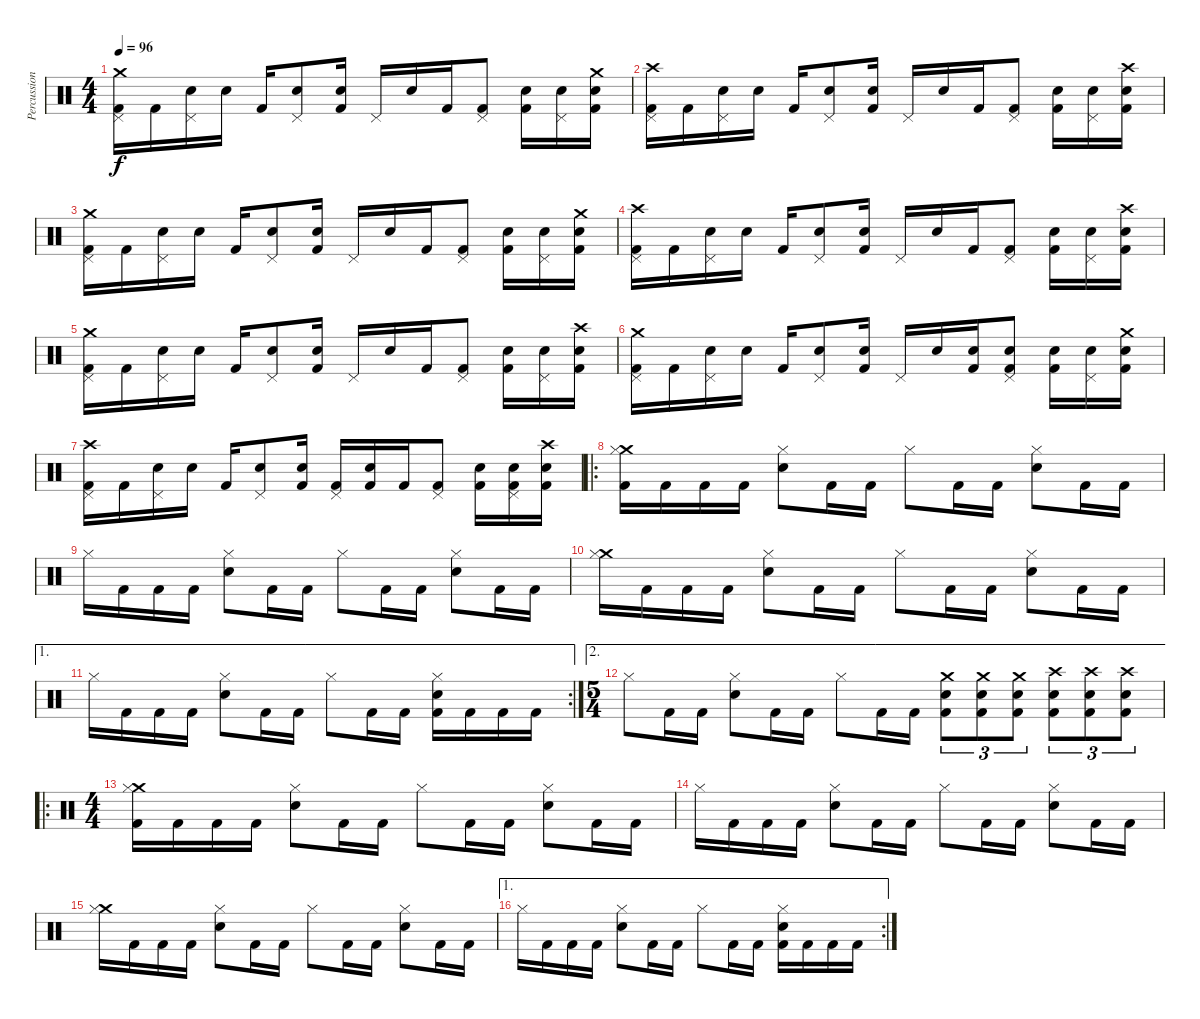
\track ("Percussion" "Percussion") {instrument percussion bank 255}
\staff {score}
\articulation defaults
\ts (4 4)
\tempo 96
\clef neutral
\ks c
("Crash medium (hit)" "Pedal Hi-Hat (hit)" "Kick (hit) 2").16{dy f} "Kick (hit) 2".16 ("Pedal Hi-Hat (hit)" "Electric Snare (hit)").16 "Snare (hit)".16 "Kick (hit) 2".16 ("Pedal Hi-Hat (hit)" "Electric Snare (hit)").8 ("Electric Snare (hit)" "Kick (hit) 2").16 "Pedal Hi-Hat (hit)".16 "Electric Snare (hit)".16 "Kick (hit) 2".16 ("Pedal Hi-Hat (hit)" "Kick (hit) 2").8 ("Electric Snare (hit)" "Kick (hit) 2").16 ("Pedal Hi-Hat (hit)" "Electric Snare (hit)").16 ("Crash medium (hit)" "Electric Snare (hit)" "Kick (hit) 2").16 |
("Crash high (hit)" "Pedal Hi-Hat (hit)" "Kick (hit) 2").16 "Kick (hit) 2".16 ("Pedal Hi-Hat (hit)" "Electric Snare (hit)").16 "Snare (hit)".16 "Kick (hit) 2".16 ("Pedal Hi-Hat (hit)" "Electric Snare (hit)").8 ("Electric Snare (hit)" "Kick (hit) 2").16 "Pedal Hi-Hat (hit)".16 "Electric Snare (hit)".16 "Kick (hit) 2".16 ("Pedal Hi-Hat (hit)" "Kick (hit) 2").8 ("Electric Snare (hit)" "Kick (hit) 2").16 ("Pedal Hi-Hat (hit)" "Electric Snare (hit)").16 ("Crash high (hit)" "Electric Snare (hit)" "Kick (hit) 2").16 |
("Crash medium (hit)" "Pedal Hi-Hat (hit)" "Kick (hit) 2").16 "Kick (hit) 2".16 ("Pedal Hi-Hat (hit)" "Electric Snare (hit)").16 "Snare (hit)".16 "Kick (hit) 2".16 ("Pedal Hi-Hat (hit)" "Electric Snare (hit)").8 ("Electric Snare (hit)" "Kick (hit) 2").16 "Pedal Hi-Hat (hit)".16 "Electric Snare (hit)".16 "Kick (hit) 2".16 ("Pedal Hi-Hat (hit)" "Kick (hit) 2").8 ("Electric Snare (hit)" "Kick (hit) 2").16 ("Pedal Hi-Hat (hit)" "Electric Snare (hit)").16 ("Crash medium (hit)" "Electric Snare (hit)" "Kick (hit) 2").16 |
("Crash high (hit)" "Pedal Hi-Hat (hit)" "Kick (hit) 2").16 "Kick (hit) 2".16 ("Pedal Hi-Hat (hit)" "Electric Snare (hit)").16 "Snare (hit)".16 "Kick (hit) 2".16 ("Pedal Hi-Hat (hit)" "Electric Snare (hit)").8 ("Electric Snare (hit)" "Kick (hit) 2").16 "Pedal Hi-Hat (hit)".16 "Electric Snare (hit)".16 "Kick (hit) 2".16 ("Pedal Hi-Hat (hit)" "Kick (hit) 2").8 ("Electric Snare (hit)" "Kick (hit) 2").16 ("Pedal Hi-Hat (hit)" "Electric Snare (hit)").16 ("Crash high (hit)" "Electric Snare (hit)" "Kick (hit) 2").16 |
("Crash medium (hit)" "Pedal Hi-Hat (hit)" "Kick (hit) 2").16 "Kick (hit) 2".16 ("Pedal Hi-Hat (hit)" "Electric Snare (hit)").16 "Snare (hit)".16 "Kick (hit) 2".16 ("Pedal Hi-Hat (hit)" "Electric Snare (hit)").8 ("Electric Snare (hit)" "Kick (hit) 2").16 "Pedal Hi-Hat (hit)".16 "Electric Snare (hit)".16 "Kick (hit) 2".16 ("Pedal Hi-Hat (hit)" "Kick (hit) 2").8 ("Electric Snare (hit)" "Kick (hit) 2").16 ("Pedal Hi-Hat (hit)" "Electric Snare (hit)").16 ("Crash high (hit)" "Electric Snare (hit)" "Kick (hit) 2").16 |
("Crash medium (hit)" "Pedal Hi-Hat (hit)" "Kick (hit) 2").16 "Kick (hit) 2".16 ("Pedal Hi-Hat (hit)" "Electric Snare (hit)").16 "Snare (hit)".16 "Kick (hit) 2".16 ("Pedal Hi-Hat (hit)" "Electric Snare (hit)").8 ("Electric Snare (hit)" "Kick (hit) 2").16 "Pedal Hi-Hat (hit)".16 "Electric Snare (hit)".16 ("Electric Snare (hit)" "Kick (hit) 2").16 ("Snare (hit)" "Pedal Hi-Hat (hit)" "Kick (hit) 2").8 ("Electric Snare (hit)" "Kick (hit) 2").16 ("Pedal Hi-Hat (hit)" "Electric Snare (hit)").16 ("Crash medium (hit)" "Electric Snare (hit)" "Kick (hit) 2").16 |
("Crash high (hit)" "Pedal Hi-Hat (hit)" "Kick (hit) 2").16 "Kick (hit) 2".16 ("Pedal Hi-Hat (hit)" "Electric Snare (hit)").16 "Snare (hit)".16 "Kick (hit) 2".16 ("Pedal Hi-Hat (hit)" "Electric Snare (hit)").8 ("Electric Snare (hit)" "Kick (hit) 2").16 ("Pedal Hi-Hat (hit)" "Kick (hit) 2").16 ("Electric Snare (hit)" "Kick (hit) 2").16 "Kick (hit) 2".16 ("Pedal Hi-Hat (hit)" "Kick (hit) 2").8 ("Electric Snare (hit)" "Kick (hit) 2").16 ("Pedal Hi-Hat (hit)" "Electric Snare (hit)" "Kick (hit) 2").16 ("Crash high (hit)" "Electric Snare (hit)" "Kick (hit) 2").16 |
\ro
("Crash medium (hit)" "Hi-Hat (closed)" "Kick (hit) 2").16 "Kick (hit) 2".16 "Kick (hit) 2".16 "Kick (hit) 2".16 ("Electric Snare (hit)" "Hi-Hat (closed)").8 "Kick (hit) 2".16 "Kick (hit) 2".16 "Hi-Hat (closed)".8 "Kick (hit) 2".16 "Kick (hit) 2".16 ("Electric Snare (hit)" "Hi-Hat (closed)").8 "Kick (hit) 2".16 "Kick (hit) 2".16 |
"Hi-Hat (closed)".16 "Kick (hit) 2".16 "Kick (hit) 2".16 "Kick (hit) 2".16 ("Electric Snare (hit)" "Hi-Hat (closed)").8 "Kick (hit) 2".16 "Kick (hit) 2".16 "Hi-Hat (closed)".8 "Kick (hit) 2".16 "Kick (hit) 2".16 ("Electric Snare (hit)" "Hi-Hat (closed)").8 "Kick (hit) 2".16 "Kick (hit) 2".16 |
("Crash medium (hit)" "Hi-Hat (closed)").16 "Kick (hit) 2".16 "Kick (hit) 2".16 "Kick (hit) 2".16 ("Electric Snare (hit)" "Hi-Hat (closed)").8 "Kick (hit) 2".16 "Kick (hit) 2".16 "Hi-Hat (closed)".8 "Kick (hit) 2".16 "Kick (hit) 2".16 ("Electric Snare (hit)" "Hi-Hat (closed)").8 "Kick (hit) 2".16 "Kick (hit) 2".16 |
\ae 1
\rc 2 "Hi-Hat (closed)".16 "Kick (hit) 2".16 "Kick (hit) 2".16 "Kick (hit) 2".16
("Electric Snare (hit)" "Hi-Hat (closed)").8 "Kick (hit) 2".16 "Kick (hit) 2".16 "Hi-Hat (closed)".8 "Kick (hit) 2".16 "Kick (hit) 2".16 ("Electric Snare (hit)" "Hi-Hat (closed)" "Kick (hit) 2").16 "Kick (hit) 2".16 "Kick (hit) 2".16 "Kick (hit) 2".16 |
\ae 2
\ts (5 4)
"Hi-Hat (closed)".8 "Kick (hit) 2".16 "Kick (hit) 2".16 ("Hi-Hat (closed)" "Electric Snare (hit)").8 "Kick (hit) 2".16 "Kick (hit) 2".16 "Hi-Hat (closed)".8 "Kick (hit) 2".16 "Kick (hit) 2".16 ("Crash medium (hit)" "Electric Snare (hit)" "Kick (hit) 2").8{tu (3 2)} ("Crash medium (hit)" "Electric Snare (hit)" "Kick (hit) 2").8{tu (3 2)} ("Crash medium (hit)" "Electric Snare (hit)" "Kick (hit) 2").8{tu (3 2)} ("Crash high (hit)" "Electric Snare (hit)" "Kick (hit) 2").8{tu (3 2)} ("Crash high (hit)" "Electric Snare (hit)" "Kick (hit) 2").8{tu (3 2)} ("Crash high (hit)" "Electric Snare (hit)" "Kick (hit) 2").8{tu (3 2)} |
\ro
\ts (4 4)
("Crash medium (hit)" "Hi-Hat (closed)" "Kick (hit) 2").16 "Kick (hit) 2".16 "Kick (hit) 2".16 "Kick (hit) 2".16 ("Electric Snare (hit)" "Hi-Hat (closed)").8 "Kick (hit) 2".16 "Kick (hit) 2".16 "Hi-Hat (closed)".8 "Kick (hit) 2".16 "Kick (hit) 2".16 ("Electric Snare (hit)" "Hi-Hat (closed)").8 "Kick (hit) 2".16 "Kick (hit) 2".16 |
"Hi-Hat (closed)".16 "Kick (hit) 2".16 "Kick (hit) 2".16 "Kick (hit) 2".16 ("Electric Snare (hit)" "Hi-Hat (closed)").8 "Kick (hit) 2".16 "Kick (hit) 2".16 "Hi-Hat (closed)".8 "Kick (hit) 2".16 "Kick (hit) 2".16 ("Electric Snare (hit)" "Hi-Hat (closed)").8 "Kick (hit) 2".16 "Kick (hit) 2".16 |
("Crash medium (hit)" "Hi-Hat (closed)").16 "Kick (hit) 2".16 "Kick (hit) 2".16 "Kick (hit) 2".16 ("Electric Snare (hit)" "Hi-Hat (closed)").8 "Kick (hit) 2".16 "Kick (hit) 2".16 "Hi-Hat (closed)".8 "Kick (hit) 2".16 "Kick (hit) 2".16 ("Electric Snare (hit)" "Hi-Hat (closed)").8 "Kick (hit) 2".16 "Kick (hit) 2".16 |
\ae 1
\rc 2 "Hi-Hat (closed)".16 "Kick (hit) 2".16 "Kick (hit) 2".16 "Kick (hit) 2".16
("Electric Snare (hit)" "Hi-Hat (closed)").8 "Kick (hit) 2".16 "Kick (hit) 2".16 "Hi-Hat (closed)".8 "Kick (hit) 2".16 "Kick (hit) 2".16 ("Electric Snare (hit)" "Hi-Hat (closed)" "Kick (hit) 2").16 "Kick (hit) 2".16 "Kick (hit) 2".16 "Kick (hit) 2".16
